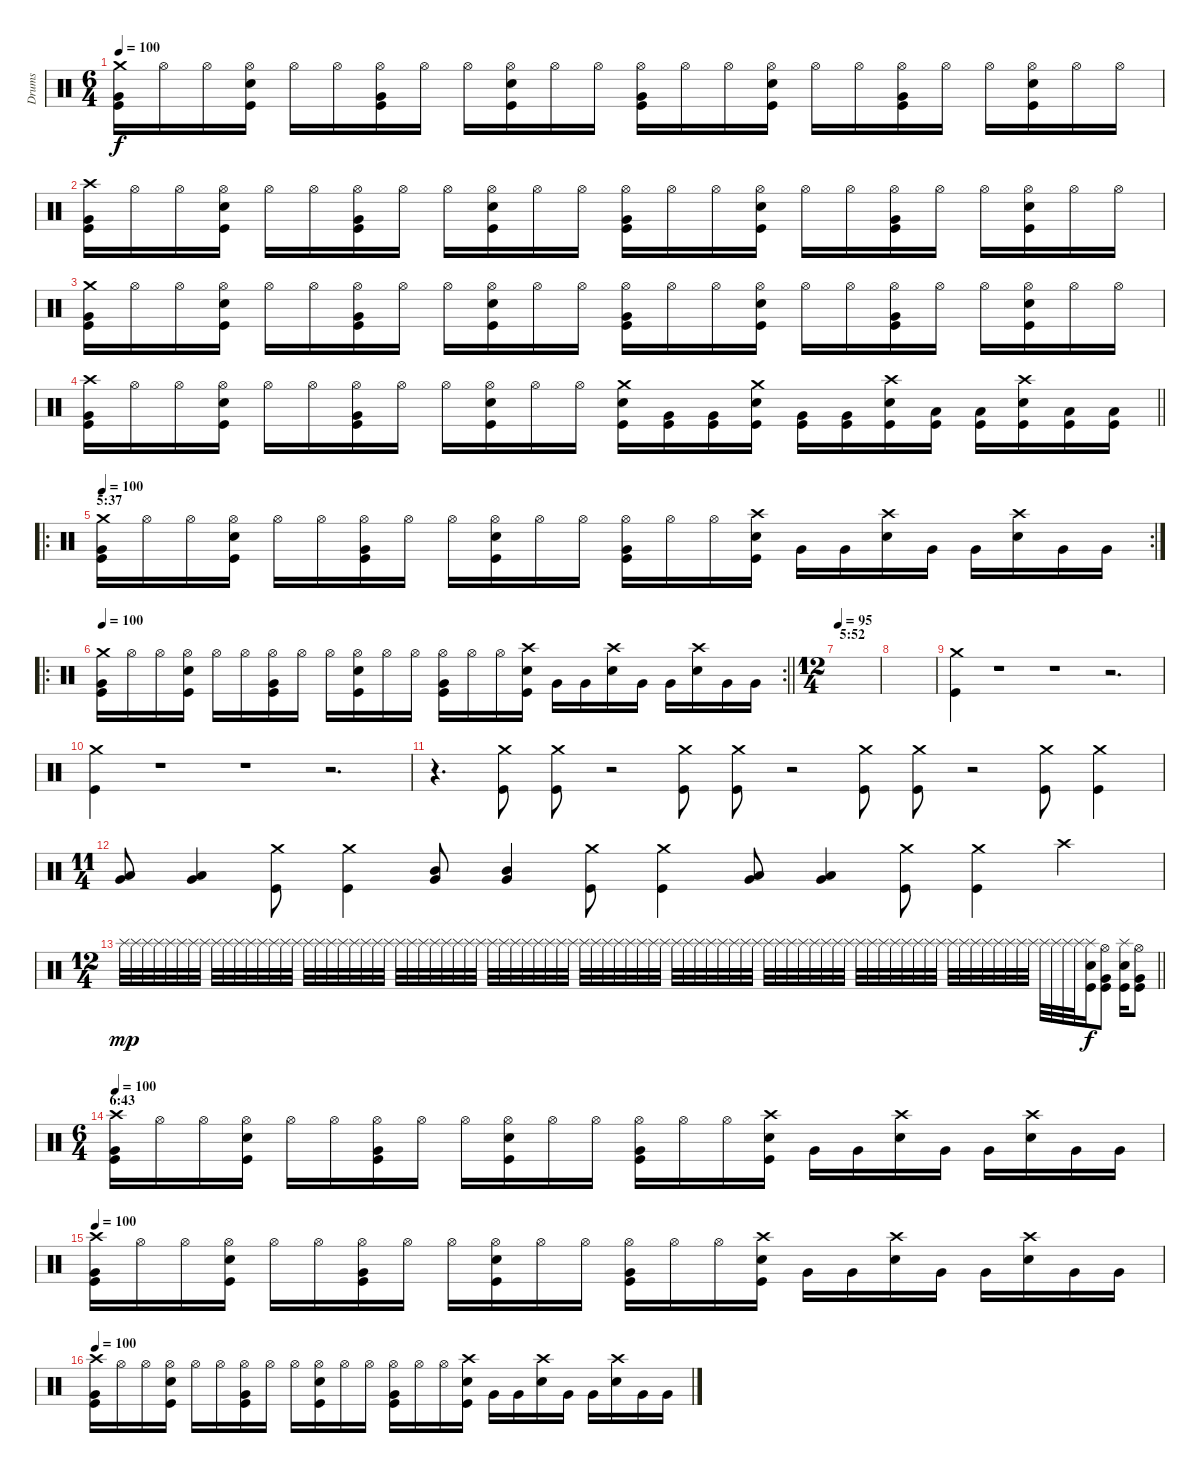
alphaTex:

\track ("Drums" "Drums") {instrument percussion}
\staff {score}
\articulation defaults
\ts (6 4)
\tempo 100
\clef neutral
\ks c
("Crash medium (hit)" "Very Low Tom (hit)" "Kick (hit)").16{dy f} "Hi-Hat (open)".16 "Hi-Hat (open)".16 ("Hi-Hat (open)" "Snare (hit) 2" "Kick (hit)").16 "Hi-Hat (open)".16 "Hi-Hat (open)".16 ("Hi-Hat (open)" "Very Low Tom (hit)" "Kick (hit)").16 "Hi-Hat (open)".16 "Hi-Hat (open)".16 ("Hi-Hat (open)" "Snare (hit) 2" "Kick (hit)").16 "Hi-Hat (open)".16 "Hi-Hat (open)".16 ("Hi-Hat (open)" "Very Low Tom (hit)" "Kick (hit)").16 "Hi-Hat (open)".16 "Hi-Hat (open)".16 ("Hi-Hat (open)" "Snare (hit) 2" "Kick (hit)").16 "Hi-Hat (open)".16 "Hi-Hat (open)".16 ("Hi-Hat (open)" "Very Low Tom (hit)" "Kick (hit)").16 "Hi-Hat (open)".16 "Hi-Hat (open)".16 ("Hi-Hat (open)" "Snare (hit) 2" "Kick (hit)").16 "Hi-Hat (open)".16 "Hi-Hat (open)".16 |
("Crash high (hit)" "Very Low Tom (hit)" "Kick (hit)").16 "Hi-Hat (open)".16 "Hi-Hat (open)".16 ("Hi-Hat (open)" "Snare (hit) 2" "Kick (hit)").16 "Hi-Hat (open)".16 "Hi-Hat (open)".16 ("Hi-Hat (open)" "Very Low Tom (hit)" "Kick (hit)").16 "Hi-Hat (open)".16 "Hi-Hat (open)".16 ("Hi-Hat (open)" "Snare (hit) 2" "Kick (hit)").16 "Hi-Hat (open)".16 "Hi-Hat (open)".16 ("Hi-Hat (open)" "Very Low Tom (hit)" "Kick (hit)").16 "Hi-Hat (open)".16 "Hi-Hat (open)".16 ("Hi-Hat (open)" "Snare (hit) 2" "Kick (hit)").16 "Hi-Hat (open)".16 "Hi-Hat (open)".16 ("Hi-Hat (open)" "Very Low Tom (hit)" "Kick (hit)").16 "Hi-Hat (open)".16 "Hi-Hat (open)".16 ("Hi-Hat (open)" "Snare (hit) 2" "Kick (hit)").16 "Hi-Hat (open)".16 "Hi-Hat (open)".16 |
("Crash medium (hit)" "Very Low Tom (hit)" "Kick (hit)").16 "Hi-Hat (open)".16 "Hi-Hat (open)".16 ("Hi-Hat (open)" "Snare (hit) 2" "Kick (hit)").16 "Hi-Hat (open)".16 "Hi-Hat (open)".16 ("Hi-Hat (open)" "Very Low Tom (hit)" "Kick (hit)").16 "Hi-Hat (open)".16 "Hi-Hat (open)".16 ("Hi-Hat (open)" "Snare (hit) 2" "Kick (hit)").16 "Hi-Hat (open)".16 "Hi-Hat (open)".16 ("Hi-Hat (open)" "Very Low Tom (hit)" "Kick (hit)").16 "Hi-Hat (open)".16 "Hi-Hat (open)".16 ("Hi-Hat (open)" "Snare (hit) 2" "Kick (hit)").16 "Hi-Hat (open)".16 "Hi-Hat (open)".16 ("Hi-Hat (open)" "Very Low Tom (hit)" "Kick (hit)").16 "Hi-Hat (open)".16 "Hi-Hat (open)".16 ("Hi-Hat (open)" "Snare (hit) 2" "Kick (hit)").16 "Hi-Hat (open)".16 "Hi-Hat (open)".16 |
\barLineRight lightlight
("Crash high (hit)" "Very Low Tom (hit)" "Kick (hit)").16 "Hi-Hat (open)".16 "Hi-Hat (open)".16 ("Hi-Hat (open)" "Snare (hit) 2" "Kick (hit)").16 "Hi-Hat (open)".16 "Hi-Hat (open)".16 ("Hi-Hat (open)" "Very Low Tom (hit)" "Kick (hit)").16 "Hi-Hat (open)".16 "Hi-Hat (open)".16 ("Hi-Hat (open)" "Snare (hit) 2" "Kick (hit)").16 "Hi-Hat (open)".16 "Hi-Hat (open)".16 ("Crash medium (hit)" "Snare (hit) 2" "Kick (hit)").16 ("Very Low Tom (hit)" "Kick (hit)").16 ("Very Low Tom (hit)" "Kick (hit)").16 ("Crash medium (hit)" "Snare (hit) 2" "Kick (hit)").16 ("Very Low Tom (hit)" "Kick (hit)").16 ("Very Low Tom (hit)" "Kick (hit)").16 ("Crash high (hit)" "Snare (hit) 2" "Kick (hit)").16 ("Low Tom (hit)" "Kick (hit)").16 ("Low Tom (hit)" "Kick (hit)").16 ("Crash high (hit)" "Snare (hit) 2" "Kick (hit)").16 ("Low Tom (hit)" "Kick (hit)").16 ("Low Tom (hit)" "Kick (hit)").16 |
\ro
\rc 2
\section ("" "5:37")
\tempo 100
("Crash medium (hit)" "Very Low Tom (hit)" "Kick (hit)").16 "Hi-Hat (open)".16 "Hi-Hat (open)".16 ("Hi-Hat (open)" "Snare (hit) 2" "Kick (hit)").16 "Hi-Hat (open)".16 "Hi-Hat (open)".16 ("Hi-Hat (open)" "Very Low Tom (hit)" "Kick (hit)").16 "Hi-Hat (open)".16 "Hi-Hat (open)".16 ("Hi-Hat (open)" "Snare (hit) 2" "Kick (hit)").16 "Hi-Hat (open)".16 "Hi-Hat (open)".16 ("Hi-Hat (open)" "Very Low Tom (hit)" "Kick (hit)").16 "Hi-Hat (open)".16 "Hi-Hat (open)".16 ("Crash high (hit)" "Snare (hit) 2" "Kick (hit)").16 "Very Low Tom (hit)".16 "Very Low Tom (hit)".16 ("Crash high (hit)" "Snare (hit) 2").16 "Very Low Tom (hit)".16 "Very Low Tom (hit)".16 ("Crash high (hit)" "Snare (hit) 2").16 "Very Low Tom (hit)".16 "Very Low Tom (hit)".16 |
\ro
\rc 2
\tempo 100
\barLineRight lightlight
("Crash medium (hit)" "Very Low Tom (hit)" "Kick (hit)").16 "Hi-Hat (open)".16 "Hi-Hat (open)".16 ("Hi-Hat (open)" "Snare (hit) 2" "Kick (hit)").16 "Hi-Hat (open)".16 "Hi-Hat (open)".16 ("Hi-Hat (open)" "Very Low Tom (hit)" "Kick (hit)").16 "Hi-Hat (open)".16 "Hi-Hat (open)".16 ("Hi-Hat (open)" "Snare (hit) 2" "Kick (hit)").16 "Hi-Hat (open)".16 "Hi-Hat (open)".16 ("Hi-Hat (open)" "Very Low Tom (hit)" "Kick (hit)").16 "Hi-Hat (open)".16 "Hi-Hat (open)".16 ("Crash high (hit)" "Snare (hit) 2" "Kick (hit)").16 "Very Low Tom (hit)".16 "Very Low Tom (hit)".16 ("Crash high (hit)" "Snare (hit) 2").16 "Very Low Tom (hit)".16 "Very Low Tom (hit)".16 ("Crash high (hit)" "Snare (hit) 2").16 "Very Low Tom (hit)".16 "Very Low Tom (hit)".16 |
\ts (12 4)
\section ("" "5:52")
\tempo 95
|
|
("Crash medium (hit)" "Kick (hit)").4 r.1 r.1 r.2{d} |
("Crash medium (hit)" "Kick (hit)").4 r.1 r.1 r.2{d} |
r.4{d} ("Crash medium (hit)" "Kick (hit)").8 ("Crash medium (hit)" "Kick (hit)").8 r.2 ("Crash medium (hit)" "Kick (hit)").8 ("Crash medium (hit)" "Kick (hit)").8 r.2 ("Crash medium (hit)" "Kick (hit)").8 ("Crash medium (hit)" "Kick (hit)").8 r.2 ("Crash medium (hit)" "Kick (hit)").8 ("Crash medium (hit)" "Kick (hit)").4 |
\ts (11 4)
("Very Low Tom (hit)" "Low Tom (hit)").8 ("Very Low Tom (hit)" "Low Tom (hit)").4 ("Crash medium (hit)" "Kick (hit)").8 ("Crash medium (hit)" "Kick (hit)").4 ("Mid Tom (hit)" "Very Low Tom (hit)").8 ("Mid Tom (hit)" "Very Low Tom (hit)").4 ("Crash medium (hit)" "Kick (hit)").8 ("Crash medium (hit)" "Kick (hit)").4 ("Very Low Tom (hit)" "Low Tom (hit)").8 ("Very Low Tom (hit)" "Low Tom (hit)").4 ("Crash medium (hit)" "Kick (hit)").8 ("Crash medium (hit)" "Kick (hit)").4 "Crash high (hit)".2 |
\ts (12 4)
\barLineRight lightlight "Splash (hit)".32{dy mp volume 0} "Splash (hit)".32{volume 15} "Splash (hit)".32 "Splash (hit)".32 "Splash (hit)".32 "Splash (hit)".32 "Splash (hit)".32 "Splash (hit)".32 "Splash (hit)".32 "Splash (hit)".32 "Splash (hit)".32 "Splash (hit)".32 "Splash (hit)".32 "Splash (hit)".32 "Splash (hit)".32 "Splash (hit)".32 "Splash (hit)".32 "Splash (hit)".32 "Splash (hit)".32 "Splash (hit)".32 "Splash (hit)".32 "Splash (hit)".32 "Splash (hit)".32 "Splash (hit)".32 "Splash (hit)".32 "Splash (hit)".32 "Splash (hit)".32 "Splash (hit)".32 "Splash (hit)".32 "Splash (hit)".32 "Splash (hit)".32 "Splash (hit)".32 "Splash (hit)".32 "Splash (hit)".32 "Splash (hit)".32 "Splash (hit)".32 "Splash (hit)".32 "Splash (hit)".32 "Splash (hit)".32 "Splash (hit)".32 "Splash (hit)".32 "Splash (hit)".32 "Splash (hit)".32 "Splash (hit)".32 "Splash (hit)".32 "Splash (hit)".32 "Splash (hit)".32 "Splash (hit)".32 "Splash (hit)".32 "Splash (hit)".32 "Splash (hit)".32 "Splash (hit)".32 "Splash (hit)".32 "Splash (hit)".32 "Splash (hit)".32 "Splash (hit)".32 "Splash (hit)".32 "Splash (hit)".32 "Splash (hit)".32 "Splash (hit)".32 "Splash (hit)".32 "Splash (hit)".32 "Splash (hit)".32 "Splash (hit)".32 "Splash (hit)".32 "Splash (hit)".32 "Splash (hit)".32 "Splash (hit)".32 "Splash (hit)".32 "Splash (hit)".32 "Splash (hit)".32 "Splash (hit)".32 "Splash (hit)".32 "Splash (hit)".32 "Splash (hit)".32 "Splash (hit)".32 "Splash (hit)".32 "Splash (hit)".32 "Splash (hit)".32 "Splash (hit)".32 "Splash (hit)".32 "Splash (hit)".32 "Splash (hit)".32 "Splash (hit)".32
("Splash (hit)" "Snare (hit) 2" "Kick (hit)").16{dy f} ("Hi-Hat (open)" "Very Low Tom (hit)" "Kick (hit)").8 ("Splash (hit)" "Snare (hit) 2" "Kick (hit)").16 ("Hi-Hat (open)" "Very Low Tom (hit)" "Kick (hit)").8 |
\ts (6 4)
\section ("" "6:43")
\tempo 100
("Crash high (hit)" "Very Low Tom (hit)" "Kick (hit)").16 "Hi-Hat (open)".16 "Hi-Hat (open)".16 ("Hi-Hat (open)" "Snare (hit) 2" "Kick (hit)").16 "Hi-Hat (open)".16 "Hi-Hat (open)".16 ("Hi-Hat (open)" "Very Low Tom (hit)" "Kick (hit)").16 "Hi-Hat (open)".16 "Hi-Hat (open)".16 ("Hi-Hat (open)" "Snare (hit) 2" "Kick (hit)").16 "Hi-Hat (open)".16 "Hi-Hat (open)".16 ("Hi-Hat (open)" "Very Low Tom (hit)" "Kick (hit)").16 "Hi-Hat (open)".16 "Hi-Hat (open)".16 ("Crash high (hit)" "Snare (hit) 2" "Kick (hit)").16 "Very Low Tom (hit)".16 "Very Low Tom (hit)".16 ("Crash high (hit)" "Snare (hit) 2").16 "Very Low Tom (hit)".16 "Very Low Tom (hit)".16 ("Crash high (hit)" "Snare (hit) 2").16 "Very Low Tom (hit)".16 "Very Low Tom (hit)".16 |
\tempo 100
("Crash high (hit)" "Very Low Tom (hit)" "Kick (hit)").16 "Hi-Hat (open)".16 "Hi-Hat (open)".16 ("Hi-Hat (open)" "Snare (hit) 2" "Kick (hit)").16 "Hi-Hat (open)".16 "Hi-Hat (open)".16 ("Hi-Hat (open)" "Very Low Tom (hit)" "Kick (hit)").16 "Hi-Hat (open)".16 "Hi-Hat (open)".16 ("Hi-Hat (open)" "Snare (hit) 2" "Kick (hit)").16 "Hi-Hat (open)".16 "Hi-Hat (open)".16 ("Hi-Hat (open)" "Very Low Tom (hit)" "Kick (hit)").16 "Hi-Hat (open)".16 "Hi-Hat (open)".16 ("Crash high (hit)" "Snare (hit) 2" "Kick (hit)").16 "Very Low Tom (hit)".16 "Very Low Tom (hit)".16 ("Crash high (hit)" "Snare (hit) 2").16 "Very Low Tom (hit)".16 "Very Low Tom (hit)".16 ("Crash high (hit)" "Snare (hit) 2").16 "Very Low Tom (hit)".16 "Very Low Tom (hit)".16 |
\tempo 100
("Crash high (hit)" "Very Low Tom (hit)" "Kick (hit)").16 "Hi-Hat (open)".16 "Hi-Hat (open)".16 ("Hi-Hat (open)" "Snare (hit) 2" "Kick (hit)").16 "Hi-Hat (open)".16 "Hi-Hat (open)".16 ("Hi-Hat (open)" "Very Low Tom (hit)" "Kick (hit)").16 "Hi-Hat (open)".16 "Hi-Hat (open)".16 ("Hi-Hat (open)" "Snare (hit) 2" "Kick (hit)").16 "Hi-Hat (open)".16 "Hi-Hat (open)".16 ("Hi-Hat (open)" "Very Low Tom (hit)" "Kick (hit)").16 "Hi-Hat (open)".16 "Hi-Hat (open)".16 ("Crash high (hit)" "Snare (hit) 2" "Kick (hit)").16 "Very Low Tom (hit)".16 "Very Low Tom (hit)".16 ("Crash high (hit)" "Snare (hit) 2").16 "Very Low Tom (hit)".16 "Very Low Tom (hit)".16 ("Crash high (hit)" "Snare (hit) 2").16 "Very Low Tom (hit)".16 "Very Low Tom (hit)".16
